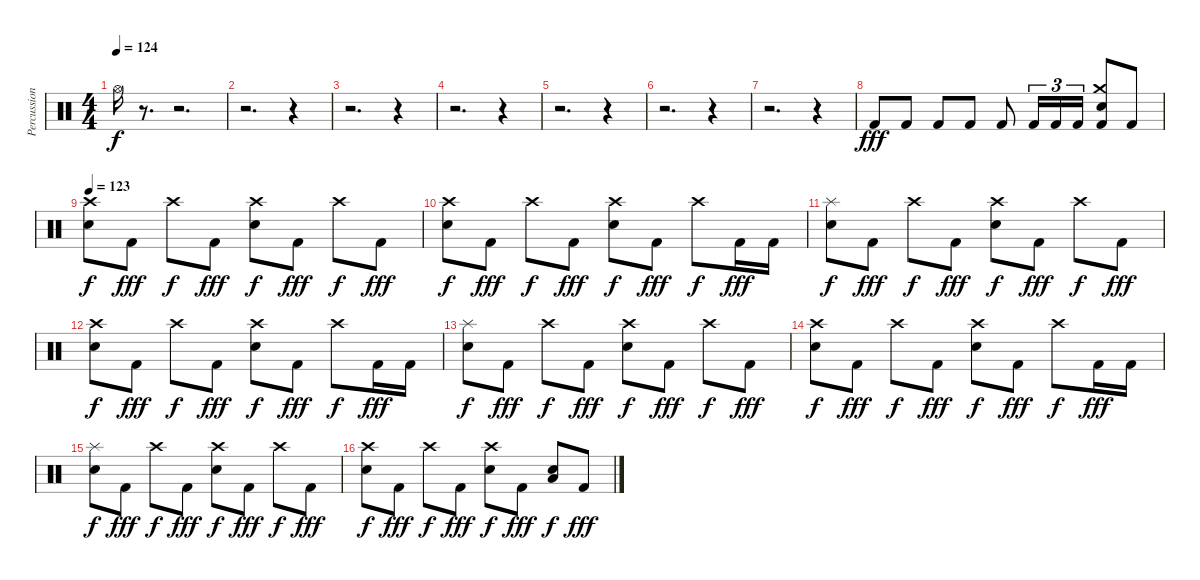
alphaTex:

\track ("Percussion" "Percussion") {instrument percussion}
\staff {score}
\articulation defaults
\ts (4 4)
\tempo 124
\clef neutral
\ks c "Hi-Hat (open)".16{dy f}
r.8{d} r.2{d} |
r.2{d} r.4 |
r.2{d} r.4 |
r.2{d} r.4 |
r.2{d} r.4 |
r.2{d} r.4 |
r.2{d} r.4 |
"Kick (hit) 2".8{dy fff} "Kick (hit) 2".8 "Kick (hit) 2".8 "Kick (hit) 2".8 "Kick (hit) 2".8 "Kick (hit) 2".16{tu (3 2)} "Kick (hit) 2".16{tu (3 2)} "Kick (hit) 2".16{tu (3 2)} ("Crash medium (hit)" "Snare (hit) 2" "Kick (hit) 2").8 "Kick (hit) 2".8 |
\tempo 123
("Crash high (hit)" "Snare (hit) 2").8{dy f} "Kick (hit) 2".8{dy fff} "Crash high (hit)".8{dy f} "Kick (hit) 2".8{dy fff} ("Crash high (hit)" "Snare (hit) 2").8{dy f} "Kick (hit) 2".8{dy fff} "Crash high (hit)".8{dy f} "Kick (hit) 2".8{dy fff} |
("Crash high (hit)" "Snare (hit) 2").8{dy f} "Kick (hit) 2".8{dy fff} "Crash high (hit)".8{dy f} "Kick (hit) 2".8{dy fff} ("Crash high (hit)" "Snare (hit) 2").8{dy f} "Kick (hit) 2".8{dy fff} "Crash high (hit)".8{dy f} "Kick (hit) 2".16{dy fff} "Kick (hit) 2".16 |
("Splash (hit)" "Snare (hit) 2").8{dy f} "Kick (hit) 2".8{dy fff} "Crash high (hit)".8{dy f} "Kick (hit) 2".8{dy fff} ("Crash high (hit)" "Snare (hit) 2").8{dy f} "Kick (hit) 2".8{dy fff} "Crash high (hit)".8{dy f} "Kick (hit) 2".8{dy fff} |
("Crash high (hit)" "Snare (hit) 2").8{dy f} "Kick (hit) 2".8{dy fff} "Crash high (hit)".8{dy f} "Kick (hit) 2".8{dy fff} ("Crash high (hit)" "Snare (hit) 2").8{dy f} "Kick (hit) 2".8{dy fff} "Crash high (hit)".8{dy f} "Kick (hit) 2".16{dy fff} "Kick (hit) 2".16 |
("Splash (hit)" "Snare (hit) 2").8{dy f} "Kick (hit) 2".8{dy fff} "Crash high (hit)".8{dy f} "Kick (hit) 2".8{dy fff} ("Crash high (hit)" "Snare (hit) 2").8{dy f} "Kick (hit) 2".8{dy fff} "Crash high (hit)".8{dy f} "Kick (hit) 2".8{dy fff} |
("Crash high (hit)" "Snare (hit) 2").8{dy f} "Kick (hit) 2".8{dy fff} "Crash high (hit)".8{dy f} "Kick (hit) 2".8{dy fff} ("Crash high (hit)" "Snare (hit) 2").8{dy f} "Kick (hit) 2".8{dy fff} "Crash high (hit)".8{dy f} "Kick (hit) 2".16{dy fff} "Kick (hit) 2".16 |
("Splash (hit)" "Snare (hit) 2").8{dy f} "Kick (hit) 2".8{dy fff} "Crash high (hit)".8{dy f} "Kick (hit) 2".8{dy fff} ("Crash high (hit)" "Snare (hit) 2").8{dy f} "Kick (hit) 2".8{dy fff} "Crash high (hit)".8{dy f} "Kick (hit) 2".8{dy fff} |
("Crash high (hit)" "Snare (hit) 2").8{dy f} "Kick (hit) 2".8{dy fff} "Crash high (hit)".8{dy f} "Kick (hit) 2".8{dy fff} ("Crash high (hit)" "Snare (hit) 2").8{dy f} "Kick (hit) 2".8{dy fff} ("Low Floor Tom (hit)" "Snare (hit) 2").8{dy f} "Kick (hit) 2".8{dy fff}
